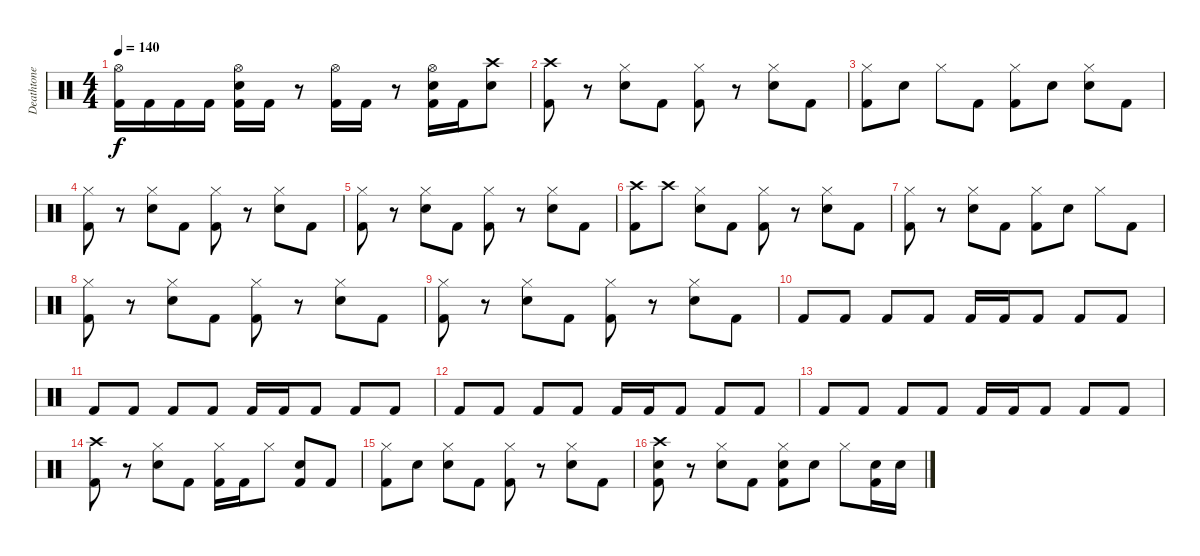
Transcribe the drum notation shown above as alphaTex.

\track ("Deathtone" "Deathtone") {instrument percussion}
\staff {score}
\articulation defaults
\ts (4 4)
\tempo 140
\clef neutral
\ks c
("Hi-Hat (open)" "Kick (hit) 2").16{dy f} "Kick (hit) 2".16 "Kick (hit) 2".16 "Kick (hit) 2".16 ("Hi-Hat (open)" "Snare (hit) 2" "Kick (hit) 2").16 "Kick (hit) 2".16 r.8 ("Hi-Hat (open)" "Kick (hit) 2").16 "Kick (hit) 2".16 r.8 ("Hi-Hat (open)" "Snare (hit) 2" "Kick (hit) 2").16 "Kick (hit) 2".16 ("Crash high (hit)" "Snare (hit) 2").8 |
("Crash high (hit)" "Kick (hit) 2").8 r.8 ("Hi-Hat (closed)" "Snare (hit) 2").8 "Kick (hit) 2".8 ("Hi-Hat (closed)" "Kick (hit) 2").8 r.8 ("Hi-Hat (closed)" "Snare (hit) 2").8 "Kick (hit) 2".8 |
("Hi-Hat (closed)" "Kick (hit) 2").8 "Snare (hit) 2".8 "Hi-Hat (closed)".8 "Kick (hit) 2".8 ("Hi-Hat (closed)" "Kick (hit) 2").8 "Snare (hit) 2".8 ("Hi-Hat (closed)" "Snare (hit) 2").8 "Kick (hit) 2".8 |
("Hi-Hat (closed)" "Kick (hit) 2").8 r.8 ("Hi-Hat (closed)" "Snare (hit) 2").8 "Kick (hit) 2".8 ("Hi-Hat (closed)" "Kick (hit) 2").8 r.8 ("Hi-Hat (closed)" "Snare (hit) 2").8 "Kick (hit) 2".8 |
("Hi-Hat (closed)" "Kick (hit) 2").8 r.8 ("Hi-Hat (closed)" "Snare (hit) 2").8 "Kick (hit) 2".8 ("Hi-Hat (closed)" "Kick (hit) 2").8 r.8 ("Hi-Hat (closed)" "Snare (hit) 2").8 "Kick (hit) 2".8 |
("Crash high (hit)" "Kick (hit) 2").8 "Crash high (hit)".8 ("Hi-Hat (closed)" "Snare (hit) 2").8 "Kick (hit) 2".8 ("Hi-Hat (closed)" "Kick (hit) 2").8 r.8 ("Hi-Hat (closed)" "Snare (hit) 2").8 "Kick (hit) 2".8 |
("Hi-Hat (closed)" "Kick (hit) 2").8 r.8 ("Hi-Hat (closed)" "Snare (hit) 2").8 "Kick (hit) 2".8 ("Hi-Hat (closed)" "Kick (hit) 2").8 "Snare (hit) 2".8 "Hi-Hat (closed)".8 "Kick (hit) 2".8 |
("Hi-Hat (closed)" "Kick (hit) 2").8 r.8 ("Hi-Hat (closed)" "Snare (hit) 2").8 "Kick (hit) 2".8 ("Hi-Hat (closed)" "Kick (hit) 2").8 r.8 ("Hi-Hat (closed)" "Snare (hit) 2").8 "Kick (hit) 2".8 |
("Hi-Hat (closed)" "Kick (hit) 2").8 r.8 ("Hi-Hat (closed)" "Snare (hit) 2").8 "Kick (hit) 2".8 ("Hi-Hat (closed)" "Kick (hit) 2").8 r.8 ("Hi-Hat (closed)" "Snare (hit) 2").8 "Kick (hit) 2".8 |
"Kick (hit) 2".8 "Kick (hit) 2".8 "Kick (hit) 2".8 "Kick (hit) 2".8 "Kick (hit) 2".16 "Kick (hit) 2".16 "Kick (hit) 2".8 "Kick (hit) 2".8 "Kick (hit) 2".8 |
"Kick (hit) 2".8 "Kick (hit) 2".8 "Kick (hit) 2".8 "Kick (hit) 2".8 "Kick (hit) 2".16 "Kick (hit) 2".16 "Kick (hit) 2".8 "Kick (hit) 2".8 "Kick (hit) 2".8 |
"Kick (hit) 2".8 "Kick (hit) 2".8 "Kick (hit) 2".8 "Kick (hit) 2".8 "Kick (hit) 2".16 "Kick (hit) 2".16 "Kick (hit) 2".8 "Kick (hit) 2".8 "Kick (hit) 2".8 |
"Kick (hit) 2".8 "Kick (hit) 2".8 "Kick (hit) 2".8 "Kick (hit) 2".8 "Kick (hit) 2".16 "Kick (hit) 2".16 "Kick (hit) 2".8 "Kick (hit) 2".8 "Kick (hit) 2".8 |
("Crash high (hit)" "Kick (hit) 2").8 r.8 ("Hi-Hat (closed)" "Snare (hit) 2").8 "Kick (hit) 2".8 ("Hi-Hat (closed)" "Kick (hit) 2").16 "Kick (hit) 2".16 "Hi-Hat (closed)".8 ("Snare (hit) 2" "Kick (hit) 2").8 "Kick (hit) 2".8 |
("Hi-Hat (closed)" "Kick (hit) 2").8 "Snare (hit) 2".8 ("Hi-Hat (closed)" "Snare (hit) 2").8 "Kick (hit) 2".8 ("Hi-Hat (closed)" "Kick (hit) 2").8 r.8 ("Hi-Hat (closed)" "Snare (hit) 2").8 "Kick (hit) 2".8 |
("Crash high (hit)" "Snare (hit) 2" "Kick (hit) 2").8 r.8 ("Hi-Hat (closed)" "Snare (hit) 2").8 "Kick (hit) 2".8 ("Hi-Hat (closed)" "Snare (hit) 2" "Kick (hit) 2").8 "Snare (hit) 2".8 "Hi-Hat (closed)".8 ("Snare (hit) 2" "Kick (hit) 2").16 "Snare (hit) 2".16
